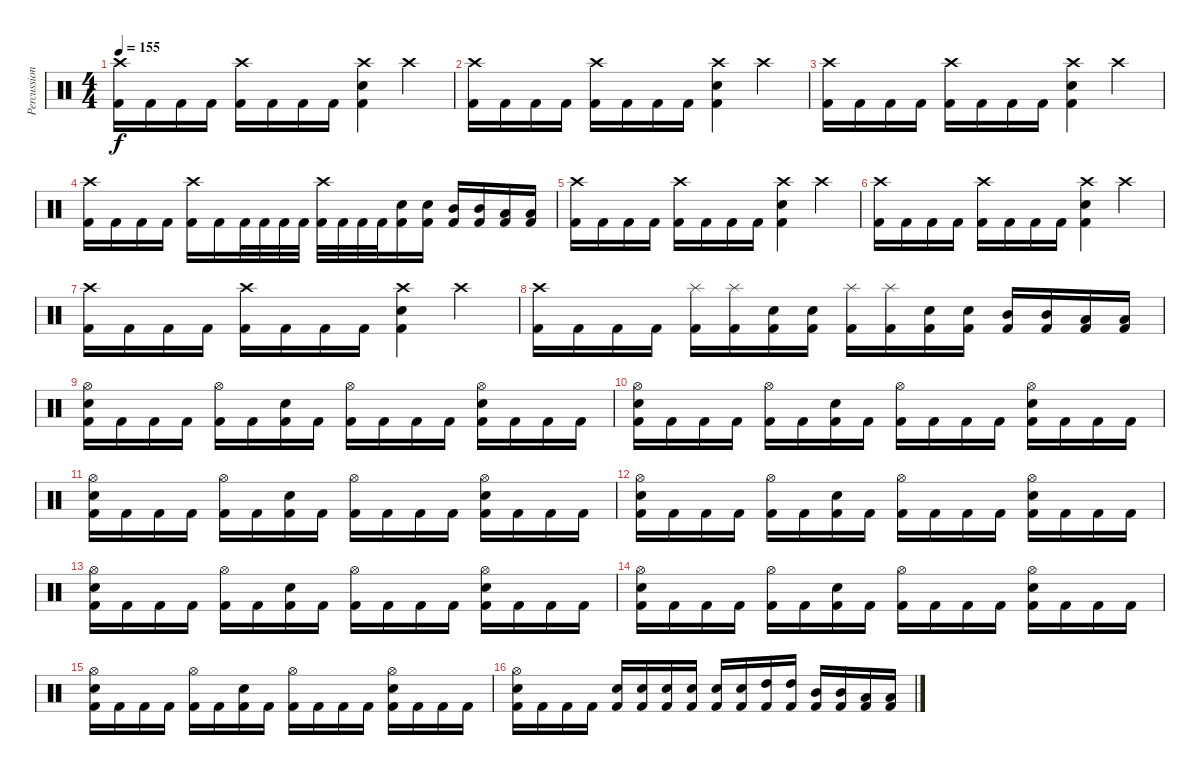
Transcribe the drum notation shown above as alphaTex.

\track ("Percussion" "Percussion") {instrument percussion}
\staff {score}
\articulation defaults
\ts (4 4)
\tempo 155
\clef neutral
\ks c
("Crash high (hit)" "Kick (hit) 2").16{dy f} "Kick (hit) 2".16 "Kick (hit) 2".16 "Kick (hit) 2".16 ("Crash high (hit)" "Kick (hit) 2").16 "Kick (hit) 2".16 "Kick (hit) 2".16 "Kick (hit) 2".16 ("Crash high (hit)" "Electric Snare (hit)" "Kick (hit) 2").4 "Crash high (hit)".4 |
("Crash high (hit)" "Kick (hit) 2").16 "Kick (hit) 2".16 "Kick (hit) 2".16 "Kick (hit) 2".16 ("Crash high (hit)" "Kick (hit) 2").16 "Kick (hit) 2".16 "Kick (hit) 2".16 "Kick (hit) 2".16 ("Crash high (hit)" "Electric Snare (hit)" "Kick (hit) 2").4 "Crash high (hit)".4 |
("Crash high (hit)" "Kick (hit) 2").16 "Kick (hit) 2".16 "Kick (hit) 2".16 "Kick (hit) 2".16 ("Crash high (hit)" "Kick (hit) 2").16 "Kick (hit) 2".16 "Kick (hit) 2".16 "Kick (hit) 2".16 ("Crash high (hit)" "Electric Snare (hit)" "Kick (hit) 2").4 "Crash high (hit)".4 |
("Crash high (hit)" "Kick (hit) 2").16 "Kick (hit) 2".16 "Kick (hit) 2".16 "Kick (hit) 2".16 ("Crash high (hit)" "Kick (hit) 2").16 "Kick (hit) 2".16 "Kick (hit) 2".32 "Kick (hit) 2".32 "Kick (hit) 2".32 "Kick (hit) 2".32 ("Crash high (hit)" "Kick (hit) 2").32 "Kick (hit) 2".32 "Kick (hit) 2".32 "Kick (hit) 2".32 ("Electric Snare (hit)" "Kick (hit) 2").16 ("Electric Snare (hit)" "Kick (hit) 2").16 ("Mid Tom (hit)" "Kick (hit) 2").16 ("Mid Tom (hit)" "Kick (hit) 2").16 ("Low Tom (hit)" "Kick (hit) 2").16 ("Low Tom (hit)" "Kick (hit) 2").16 |
("Crash high (hit)" "Kick (hit) 2").16 "Kick (hit) 2".16 "Kick (hit) 2".16 "Kick (hit) 2".16 ("Crash high (hit)" "Kick (hit) 2").16 "Kick (hit) 2".16 "Kick (hit) 2".16 "Kick (hit) 2".16 ("Crash high (hit)" "Electric Snare (hit)" "Kick (hit) 2").4 "Crash high (hit)".4 |
("Crash high (hit)" "Kick (hit) 2").16 "Kick (hit) 2".16 "Kick (hit) 2".16 "Kick (hit) 2".16 ("Crash high (hit)" "Kick (hit) 2").16 "Kick (hit) 2".16 "Kick (hit) 2".16 "Kick (hit) 2".16 ("Crash high (hit)" "Electric Snare (hit)" "Kick (hit) 2").4 "Crash high (hit)".4 |
("Crash high (hit)" "Kick (hit) 2").16 "Kick (hit) 2".16 "Kick (hit) 2".16 "Kick (hit) 2".16 ("Crash high (hit)" "Kick (hit) 2").16 "Kick (hit) 2".16 "Kick (hit) 2".16 "Kick (hit) 2".16 ("Crash high (hit)" "Electric Snare (hit)" "Kick (hit) 2").4 "Crash high (hit)".4 |
("Crash high (hit)" "Kick (hit) 2").16 "Kick (hit) 2".16 "Kick (hit) 2".16 "Kick (hit) 2".16 ("Splash (hit)" "Kick (hit) 2").16 ("Splash (hit)" "Kick (hit) 2").16 ("Electric Snare (hit)" "Kick (hit) 2").16 ("Electric Snare (hit)" "Kick (hit) 2").16 ("Splash (hit)" "Kick (hit) 2").16 ("Splash (hit)" "Kick (hit) 2").16 ("Electric Snare (hit)" "Kick (hit) 2").16 ("Electric Snare (hit)" "Kick (hit) 2").16 ("Mid Tom (hit)" "Kick (hit) 2").16 ("Mid Tom (hit)" "Kick (hit) 2").16 ("Low Tom (hit)" "Kick (hit) 2").16 ("Low Tom (hit)" "Kick (hit) 2").16 |
("Hi-Hat (open)" "Electric Snare (hit)" "Kick (hit) 2").16 "Kick (hit) 2".16 "Kick (hit) 2".16 "Kick (hit) 2".16 ("Hi-Hat (open)" "Kick (hit) 2").16 "Kick (hit) 2".16 ("Electric Snare (hit)" "Kick (hit) 2").16 "Kick (hit) 2".16 ("Hi-Hat (open)" "Kick (hit) 2").16 "Kick (hit) 2".16 "Kick (hit) 2".16 "Kick (hit) 2".16 ("Hi-Hat (open)" "Electric Snare (hit)" "Kick (hit) 2").16 "Kick (hit) 2".16 "Kick (hit) 2".16 "Kick (hit) 2".16 |
("Hi-Hat (open)" "Electric Snare (hit)" "Kick (hit) 2").16 "Kick (hit) 2".16 "Kick (hit) 2".16 "Kick (hit) 2".16 ("Hi-Hat (open)" "Kick (hit) 2").16 "Kick (hit) 2".16 ("Electric Snare (hit)" "Kick (hit) 2").16 "Kick (hit) 2".16 ("Hi-Hat (open)" "Kick (hit) 2").16 "Kick (hit) 2".16 "Kick (hit) 2".16 "Kick (hit) 2".16 ("Hi-Hat (open)" "Electric Snare (hit)" "Kick (hit) 2").16 "Kick (hit) 2".16 "Kick (hit) 2".16 "Kick (hit) 2".16 |
("Hi-Hat (open)" "Electric Snare (hit)" "Kick (hit) 2").16 "Kick (hit) 2".16 "Kick (hit) 2".16 "Kick (hit) 2".16 ("Hi-Hat (open)" "Kick (hit) 2").16 "Kick (hit) 2".16 ("Electric Snare (hit)" "Kick (hit) 2").16 "Kick (hit) 2".16 ("Hi-Hat (open)" "Kick (hit) 2").16 "Kick (hit) 2".16 "Kick (hit) 2".16 "Kick (hit) 2".16 ("Hi-Hat (open)" "Electric Snare (hit)" "Kick (hit) 2").16 "Kick (hit) 2".16 "Kick (hit) 2".16 "Kick (hit) 2".16 |
("Hi-Hat (open)" "Electric Snare (hit)" "Kick (hit) 2").16 "Kick (hit) 2".16 "Kick (hit) 2".16 "Kick (hit) 2".16 ("Hi-Hat (open)" "Kick (hit) 2").16 "Kick (hit) 2".16 ("Electric Snare (hit)" "Kick (hit) 2").16 "Kick (hit) 2".16 ("Hi-Hat (open)" "Kick (hit) 2").16 "Kick (hit) 2".16 "Kick (hit) 2".16 "Kick (hit) 2".16 ("Hi-Hat (open)" "Electric Snare (hit)" "Kick (hit) 2").16 "Kick (hit) 2".16 "Kick (hit) 2".16 "Kick (hit) 2".16 |
("Hi-Hat (open)" "Electric Snare (hit)" "Kick (hit) 2").16 "Kick (hit) 2".16 "Kick (hit) 2".16 "Kick (hit) 2".16 ("Hi-Hat (open)" "Kick (hit) 2").16 "Kick (hit) 2".16 ("Electric Snare (hit)" "Kick (hit) 2").16 "Kick (hit) 2".16 ("Hi-Hat (open)" "Kick (hit) 2").16 "Kick (hit) 2".16 "Kick (hit) 2".16 "Kick (hit) 2".16 ("Hi-Hat (open)" "Electric Snare (hit)" "Kick (hit) 2").16 "Kick (hit) 2".16 "Kick (hit) 2".16 "Kick (hit) 2".16 |
("Hi-Hat (open)" "Electric Snare (hit)" "Kick (hit) 2").16 "Kick (hit) 2".16 "Kick (hit) 2".16 "Kick (hit) 2".16 ("Hi-Hat (open)" "Kick (hit) 2").16 "Kick (hit) 2".16 ("Electric Snare (hit)" "Kick (hit) 2").16 "Kick (hit) 2".16 ("Hi-Hat (open)" "Kick (hit) 2").16 "Kick (hit) 2".16 "Kick (hit) 2".16 "Kick (hit) 2".16 ("Hi-Hat (open)" "Electric Snare (hit)" "Kick (hit) 2").16 "Kick (hit) 2".16 "Kick (hit) 2".16 "Kick (hit) 2".16 |
("Hi-Hat (open)" "Electric Snare (hit)" "Kick (hit) 2").16 "Kick (hit) 2".16 "Kick (hit) 2".16 "Kick (hit) 2".16 ("Hi-Hat (open)" "Kick (hit) 2").16 "Kick (hit) 2".16 ("Electric Snare (hit)" "Kick (hit) 2").16 "Kick (hit) 2".16 ("Hi-Hat (open)" "Kick (hit) 2").16 "Kick (hit) 2".16 "Kick (hit) 2".16 "Kick (hit) 2".16 ("Hi-Hat (open)" "Electric Snare (hit)" "Kick (hit) 2").16 "Kick (hit) 2".16 "Kick (hit) 2".16 "Kick (hit) 2".16 |
("Hi-Hat (open)" "Electric Snare (hit)" "Kick (hit) 2").16 "Kick (hit) 2".16 "Kick (hit) 2".16 "Kick (hit) 2".16 ("Electric Snare (hit)" "Kick (hit) 2").16 ("Electric Snare (hit)" "Kick (hit) 2").16 ("Electric Snare (hit)" "Kick (hit) 2").16 ("Electric Snare (hit)" "Kick (hit) 2").16 ("Electric Snare (hit)" "Kick (hit) 2").16 ("Electric Snare (hit)" "Kick (hit) 2").16 ("High Tom (hit)" "Kick (hit) 2").16 ("High Tom (hit)" "Kick (hit) 2").16 ("Mid Tom (hit)" "Kick (hit) 2").16 ("Mid Tom (hit)" "Kick (hit) 2").16 ("Low Tom (hit)" "Kick (hit) 2").16 ("Low Tom (hit)" "Kick (hit) 2").16
